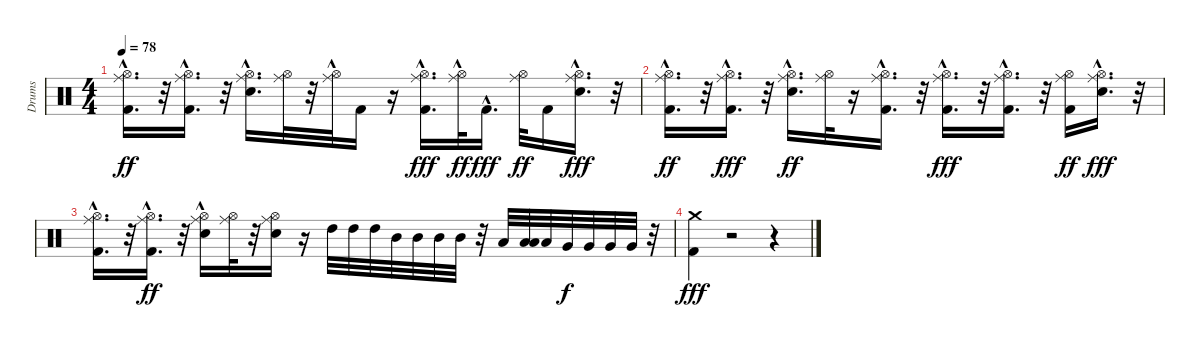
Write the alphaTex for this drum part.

\track ("Drums" "Drums") {instrument percussion}
\staff {score}
\articulation defaults
\ts (4 4)
\tempo 78
\clef neutral
\ks c
("Hi-Hat (open)"{hac} "Kick (hit) 2" "Ride (middle)"{hac}).16{d dy ff} r.32 ("Hi-Hat (open)" "Ride (middle)" "Kick (hit) 2"{hac}).16{d} r.32 ("Hi-Hat (open)"{hac} "Ride (middle)"{hac} "Snare (hit) 2").16{d} ("Ride (middle)" "Hi-Hat (open)").32 r.32 ("Hi-Hat (open)"{hac} "Ride (middle)"{hac}).32 "Kick (hit) 2".16 r.16 ("Hi-Hat (open)"{hac} "Ride (middle)"{hac} "Kick (hit) 2").16{d dy fff} ("Hi-Hat (open)"{hac} "Ride (middle)"{hac}).32{dy ff} "Kick (hit) 2"{hac}.16{d dy fff} ("Hi-Hat (open)" "Ride (middle)").32{dy ff} "Kick (hit) 2".16 ("Hi-Hat (open)"{hac} "Ride (middle)"{hac} "Snare (hit) 2").16{d dy fff} r.32 |
("Kick (hit) 2" "Hi-Hat (open)"{hac} "Ride (middle)"{hac}).16{d dy ff} r.32 ("Kick (hit) 2"{hac} "Ride (middle)" "Hi-Hat (open)"{hac}).16{d dy fff} r.32 ("Hi-Hat (open)"{hac} "Ride (middle)"{hac} "Snare (hit) 2").16{d dy ff} ("Ride (middle)" "Hi-Hat (open)").32 r.16 ("Hi-Hat (open)"{hac} "Ride (middle)"{hac} "Kick (hit) 2").16{d} r.32 ("Hi-Hat (open)"{hac} "Ride (middle)"{hac} "Kick (hit) 2").16{d dy fff} r.32 ("Hi-Hat (open)"{hac} "Ride (middle)"{hac} "Kick (hit) 2"{hac}).16{d} r.32 ("Hi-Hat (open)" "Ride (middle)" "Kick (hit) 2").16{dy ff} ("Hi-Hat (open)"{hac} "Ride (middle)"{hac} "Snare (hit) 2").16{d dy fff} r.32 |
("Ride (middle)" "Hi-Hat (open)" "Kick (hit) 2"{hac}).16{d} r.32 ("Kick (hit) 2"{hac} "Ride (middle)" "Hi-Hat (open)").16{d dy ff} r.32 ("Snare (hit) 2"{hac} "Ride (middle)" "Hi-Hat (open)").16 ("Ride (middle)" "Hi-Hat (open)").32 r.32 ("Snare (hit) 2" "Ride (middle)" "Hi-Hat (open)").16 r.16 "High Tom (hit)".32 "High Tom (hit)".32 "High Tom (hit)".32 "Mid Tom (hit)".32 "Mid Tom (hit)".32 "Mid Tom (hit)".32 "Mid Tom (hit)".32 r.32 "Low Tom (hit)".32 ("Low Tom (hit)" "Low Tom (hit)").32 "Low Tom (hit)".32 "Very Low Tom (hit)".32{dy f} "Very Low Tom (hit)".32 "Very Low Tom (hit)".32 "Very Low Tom (hit)".32 r.32 |
("Kick (hit) 2" "Crash medium (hit)").4{dy fff} r.2 r.4
